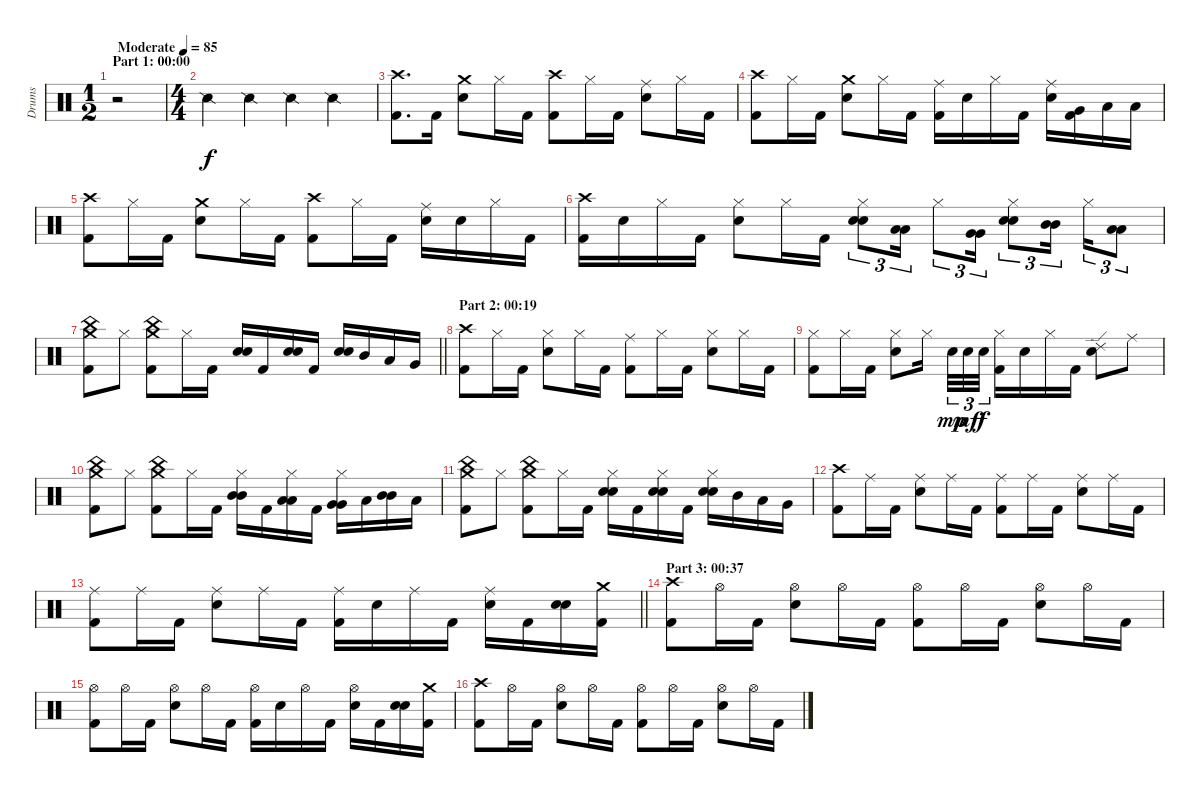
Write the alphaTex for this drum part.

\track ("Drums" "Drums") {instrument percussion}
\staff {score}
\articulation defaults
\ts (1 2)
\section ("" "Part 1: 00:00")
\tempo (85 "Moderate")
\clef neutral
\ks c
r.2{dy f} |
\ts (4 4)
"Snare (side stick) 2".4 "Snare (side stick) 2".4 "Snare (side stick) 2".4 "Snare (side stick) 2".4 |
("Crash high (hit)" "Kick (hit) 2").8{d} "Kick (hit) 2".16 ("Crash medium (hit)" "Electric Snare (hit)").8 "Hi-Hat (closed)".16 "Kick (hit) 2".16 ("Crash high (hit)" "Kick (hit) 2").8 "Hi-Hat (closed)".16 "Kick (hit) 2".16 ("Ride (middle)" "Electric Snare (hit)").8 "Hi-Hat (closed)".16 "Kick (hit) 2".16 |
("Crash high (hit)" "Kick (hit) 2").8 "Hi-Hat (closed)".16 "Kick (hit) 2".16 ("Crash medium (hit)" "Electric Snare (hit)").8 "Hi-Hat (closed)".16 "Kick (hit) 2".16 ("Ride (middle)" "Kick (hit) 2").16 "Electric Snare (hit)".16 "Hi-Hat (closed)".16 "Kick (hit) 2".16 ("Ride (middle)" "Electric Snare (hit)").16 ("Very Low Tom (hit)" "Kick (hit) 2").16 "Low Tom (hit)".16 "Low Floor Tom (hit)".16 |
("Crash high (hit)" "Kick (hit) 2").8 "Hi-Hat (closed)".16 "Kick (hit) 2".16 ("Crash medium (hit)" "Electric Snare (hit)").8 "Hi-Hat (closed)".16 "Kick (hit) 2".16 ("Crash high (hit)" "Kick (hit) 2").8 "Hi-Hat (closed)".16 "Kick (hit) 2".16 ("Ride (middle)" "Electric Snare (hit)").16 "Electric Snare (hit)".16 "Hi-Hat (closed)".16 "Kick (hit) 2".16 |
("Crash high (hit)" "Kick (hit) 2").16 "Electric Snare (hit)".16 "Hi-Hat (closed)".16 "Kick (hit) 2".16 ("Hi-Hat (closed)" "Electric Snare (hit)").8 "Hi-Hat (closed)".16 "Kick (hit) 2".16 ("Hi-Hat (closed)" "Electric Snare (hit)" "Electric Snare (hit)").8{tu (3 2) bu 30} ("Low Tom (hit)" "Low Tom (hit)").16{tu (3 2)} "Hi-Hat (closed)".8{tu (3 2)} ("Very Low Tom (hit)" "Very Low Tom (hit)").16{tu (3 2)} ("Hi-Hat (closed)" "Electric Snare (hit)" "Electric Snare (hit)").8{tu (3 2) bu 30} ("Mid Tom (hit)" "Mid Tom (hit)").16{tu (3 2) beam splitsecondary} "Hi-Hat (closed)".16{tu (3 2)} ("Low Tom (hit)" "Low Tom (hit)").8{tu (3 2)} |
\barLineRight lightlight
("Crash medium (hit)" "China (hit)" "Kick (hit) 2").8 "Hi-Hat (closed)".8 ("Crash medium (hit)" "China (hit)" "Kick (hit) 2").8 "Hi-Hat (closed)".16 "Kick (hit) 2".16 ("Electric Snare (hit)" "Electric Snare (hit)").16{bd 120} "Kick (hit) 2".16 ("Electric Snare (hit)" "Electric Snare (hit)").16{bd 120} "Kick (hit) 2".16 ("Electric Snare (hit)" "Electric Snare (hit)").16{bd 120} "Mid Tom (hit)".16 "Low Tom (hit)".16 "Very Low Tom (hit)".16 |
\section ("" "Part 2: 00:19")
("Crash high (hit)" "Kick (hit) 2").8 "Hi-Hat (closed)".16 "Kick (hit) 2".16 ("Hi-Hat (closed)" "Electric Snare (hit)").8 "Hi-Hat (closed)".16 "Kick (hit) 2".16 ("Ride (middle)" "Kick (hit) 2").8 "Hi-Hat (closed)".16 "Kick (hit) 2".16 ("Hi-Hat (closed)" "Electric Snare (hit)").8 "Hi-Hat (closed)".16 "Kick (hit) 2".16 |
("Hi-Hat (closed)" "Kick (hit) 2").8 "Hi-Hat (closed)".16 "Kick (hit) 2".16 ("Hi-Hat (closed)" "Electric Snare (hit)").8 "Hi-Hat (closed)".16{beam splitsecondary} "Electric Snare (hit)".32{tu (3 2) dy mp} "Electric Snare (hit)".32{tu (3 2) dy mf} "Electric Snare (hit)".32{tu (3 2) dy f} ("Hi-Hat (closed)" "Kick (hit) 2").16 "Electric Snare (hit)".16 "Hi-Hat (closed)".16 "Kick (hit) 2".16 ("Ride (edge) 2" "Electric Snare (hit)").8 "Ride (middle)".8 |
("Crash medium (hit)" "China (hit)" "Kick (hit) 2").8 "Hi-Hat (closed)".8 ("Crash medium (hit)" "China (hit)" "Kick (hit) 2").8 "Hi-Hat (closed)".16 "Kick (hit) 2".16 ("Hi-Hat (closed)" "Mid Tom (hit)" "Mid Tom (hit)").16{bu 30} "Kick (hit) 2".16 ("Hi-Hat (closed)" "Low Tom (hit)" "Low Tom (hit)").16{bu 30} "Kick (hit) 2".16 ("Hi-Hat (closed)" "Very Low Tom (hit)" "Very Low Tom (hit)").16{bu 30} "Low Tom (hit)".16 ("Mid Tom (hit)" "Mid Tom (hit)").16{bd 30} "Low Floor Tom (hit)".16 |
("Crash medium (hit)" "China (hit)" "Kick (hit) 2").8 "Hi-Hat (closed)".8 ("Crash medium (hit)" "China (hit)" "Kick (hit) 2").8 "Hi-Hat (closed)".16 "Kick (hit) 2".16 ("Hi-Hat (closed)" "Electric Snare (hit)" "Electric Snare (hit)").16{bu 30} "Kick (hit) 2".16 ("Hi-Hat (closed)" "Electric Snare (hit)" "Electric Snare (hit)").16{bu 30} "Kick (hit) 2".16 ("Hi-Hat (closed)" "Electric Snare (hit)" "Electric Snare (hit)").16{bu 30} "Mid Tom (hit)".16 "Low Tom (hit)".16 "Very Low Tom (hit)".16 |
("Crash high (hit)" "Kick (hit) 2").8 "Ride (middle)".16 "Kick (hit) 2".16 ("Ride (middle)" "Electric Snare (hit)").8 "Ride (middle)".16 "Kick (hit) 2".16 ("Ride (middle)" "Kick (hit) 2").8 "Ride (middle)".16 "Kick (hit) 2".16 ("Ride (middle)" "Electric Snare (hit)").8 "Ride (middle)".16 "Kick (hit) 2".16 |
\barLineRight lightlight
("Ride (middle)" "Kick (hit) 2").8 "Ride (middle)".16 "Kick (hit) 2".16 ("Ride (middle)" "Electric Snare (hit)").8 "Ride (middle)".16 "Kick (hit) 2".16 ("Ride (middle)" "Kick (hit) 2").16 "Electric Snare (hit)".16 "Ride (middle)".16 "Kick (hit) 2".16 ("Ride (middle)" "Electric Snare (hit)").16 "Kick (hit) 2".16 ("Electric Snare (hit)" "Electric Snare (hit)").16{bd 120} ("Crash medium (hit)" "Kick (hit) 2").16 |
\section ("" "Part 3: 00:37")
("Crash high (hit)" "Kick (hit) 2").8 "Hi-Hat (open)".16 "Kick (hit) 2".16 ("Hi-Hat (open)" "Electric Snare (hit)").8 "Hi-Hat (open)".16 "Kick (hit) 2".16 ("Hi-Hat (open)" "Kick (hit) 2").8 "Hi-Hat (open)".16 "Kick (hit) 2".16 ("Hi-Hat (open)" "Electric Snare (hit)").8 "Hi-Hat (open)".16 "Kick (hit) 2".16 |
("Hi-Hat (open)" "Kick (hit) 2").8 "Hi-Hat (open)".16 "Kick (hit) 2".16 ("Hi-Hat (open)" "Electric Snare (hit)").8 "Hi-Hat (open)".16 "Kick (hit) 2".16 ("Hi-Hat (open)" "Kick (hit) 2").16 "Electric Snare (hit)".16 "Hi-Hat (open)".16 "Kick (hit) 2".16 ("Hi-Hat (open)" "Electric Snare (hit)").16 "Kick (hit) 2".16 ("Electric Snare (hit)" "Electric Snare (hit)").16{bd 120} ("Crash medium (hit)" "Kick (hit) 2").16 |
("Crash high (hit)" "Kick (hit) 2").8 "Hi-Hat (open)".16 "Kick (hit) 2".16 ("Hi-Hat (open)" "Electric Snare (hit)").8 "Hi-Hat (open)".16 "Kick (hit) 2".16 ("Hi-Hat (open)" "Kick (hit) 2").8 "Hi-Hat (open)".16 "Kick (hit) 2".16 ("Hi-Hat (open)" "Electric Snare (hit)").8 "Hi-Hat (open)".16 "Kick (hit) 2".16
